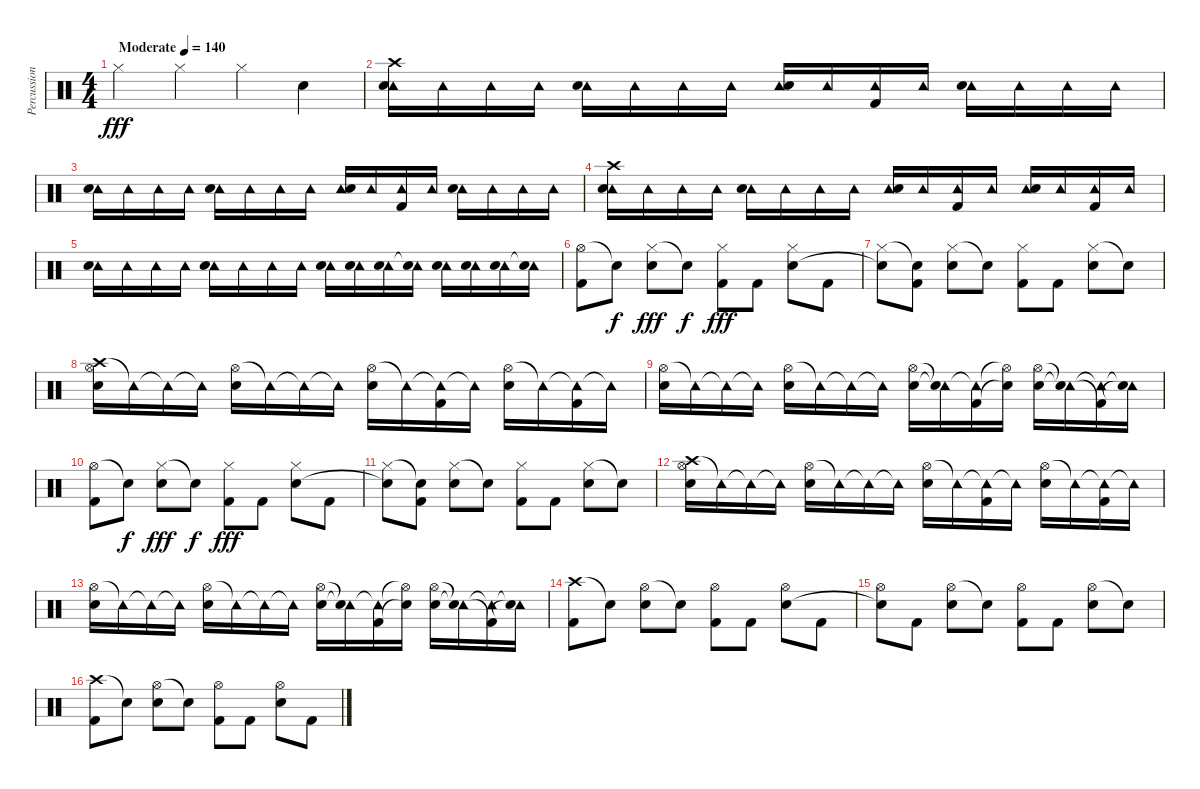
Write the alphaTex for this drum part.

\track ("Percussion" "Percussion") {instrument percussion}
\staff {score}
\articulation defaults
\ts (4 4)
\tempo (140 "Moderate")
\clef neutral
\ks c "Hi-Hat (closed)".4{dy fff} "Hi-Hat (closed)".4 "Hi-Hat (closed)".4 "Electric Snare (hit)".4
|
("Crash high (hit)" "Tambourine (hit)" "Electric Snare (hit)").16 "Tambourine (hit)".16 "Tambourine (hit)".16 "Tambourine (hit)".16 ("Tambourine (hit)" "Electric Snare (hit)").16 "Tambourine (hit)".16 "Tambourine (hit)".16 "Tambourine (hit)".16 ("Tambourine (hit)" "Electric Snare (hit)").16 "Tambourine (hit)".16 ("Tambourine (hit)" "Kick (hit) 2").16 "Tambourine (hit)".16 ("Tambourine (hit)" "Electric Snare (hit)").16 "Tambourine (hit)".16 "Tambourine (hit)".16 "Tambourine (hit)".16 |
("Tambourine (hit)" "Electric Snare (hit)").16 "Tambourine (hit)".16 "Tambourine (hit)".16 "Tambourine (hit)".16 ("Tambourine (hit)" "Electric Snare (hit)").16 "Tambourine (hit)".16 "Tambourine (hit)".16 "Tambourine (hit)".16 ("Tambourine (hit)" "Electric Snare (hit)").16 "Tambourine (hit)".16 ("Tambourine (hit)" "Kick (hit) 2").16 "Tambourine (hit)".16 ("Tambourine (hit)" "Electric Snare (hit)").16 "Tambourine (hit)".16 "Tambourine (hit)".16 "Tambourine (hit)".16 |
("Crash high (hit)" "Tambourine (hit)" "Electric Snare (hit)").16 "Tambourine (hit)".16 "Tambourine (hit)".16 "Tambourine (hit)".16 ("Tambourine (hit)" "Electric Snare (hit)").16 "Tambourine (hit)".16 "Tambourine (hit)".16 "Tambourine (hit)".16 ("Tambourine (hit)" "Electric Snare (hit)").16 "Tambourine (hit)".16 ("Tambourine (hit)" "Kick (hit) 2").16 "Tambourine (hit)".16 ("Tambourine (hit)" "Electric Snare (hit)").16 "Tambourine (hit)".16 ("Tambourine (hit)" "Kick (hit) 2").16 "Tambourine (hit)".16 |
("Tambourine (hit)" "Electric Snare (hit)").16 "Tambourine (hit)".16 "Tambourine (hit)".16 "Tambourine (hit)".16 ("Tambourine (hit)" "Electric Snare (hit)").16 "Tambourine (hit)".16 "Tambourine (hit)".16 "Tambourine (hit)".16 ("Tambourine (hit)" "Electric Snare (hit)").16 ("Tambourine (hit)" "Electric Snare (hit)").16 ("Tambourine (hit)" "Electric Snare (hit)").16 ("Tambourine (hit)" "Snare (hit)"{t}).16 ("Tambourine (hit)" "Electric Snare (hit)").16 ("Tambourine (hit)" "Electric Snare (hit)").16 ("Tambourine (hit)" "Electric Snare (hit)").16 ("Tambourine (hit)" "Snare (hit)"{t}).16 |
("Hi-Hat (open)" "Kick (hit) 2").8 "Snare (hit)"{t}.8{dy f} ("Hi-Hat (closed)" "Electric Snare (hit)").8{dy fff} "Snare (hit)"{t}.8{dy f} ("Hi-Hat (closed)" "Kick (hit) 2").8{dy fff} "Kick (hit) 2".8 ("Hi-Hat (closed)" "Electric Snare (hit)").8 "Kick (hit) 2".8 |
("Hi-Hat (closed)" "Snare (hit)"{t}).8 ("Snare (hit)"{t} "Kick (hit) 2").8 ("Hi-Hat (closed)" "Electric Snare (hit)").8 "Snare (hit)"{t}.8 ("Hi-Hat (closed)" "Kick (hit) 2").8 "Kick (hit) 2".8 ("Hi-Hat (closed)" "Electric Snare (hit)").8 "Snare (hit)"{t}.8 |
("Crash high (hit)" "Hi-Hat (open)" "Electric Snare (hit)").16 "Tambourine (hit)"{t}.16 "Tambourine (hit)"{t}.16 "Tambourine (hit)"{t}.16 ("Hi-Hat (open)" "Electric Snare (hit)").16 "Tambourine (hit)"{t}.16 "Tambourine (hit)"{t}.16 "Tambourine (hit)"{t}.16 ("Hi-Hat (open)" "Electric Snare (hit)").16 "Tambourine (hit)"{t}.16 ("Tambourine (hit)"{t} "Kick (hit) 2").16 "Tambourine (hit)"{t}.16 ("Hi-Hat (open)" "Electric Snare (hit)").16 "Tambourine (hit)"{t}.16 ("Tambourine (hit)"{t} "Kick (hit) 2").16 "Tambourine (hit)"{t}.16 |
("Hi-Hat (open)" "Electric Snare (hit)").16 "Tambourine (hit)"{t}.16 "Tambourine (hit)"{t}.16 "Tambourine (hit)"{t}.16 ("Hi-Hat (open)" "Electric Snare (hit)").16 "Tambourine (hit)"{t}.16 "Tambourine (hit)"{t}.16 "Tambourine (hit)"{t}.16 ("Hi-Hat (open)" "Electric Snare (hit)").16 ("Tambourine (hit)"{t} "Electric Snare (hit)"{t}).16 ("Tambourine (hit)"{t} "Kick (hit) 2").16 ("Hi-Hat (open)"{t} "Snare (hit)"{t}).16 ("Hi-Hat (open)" "Electric Snare (hit)").16 ("Tambourine (hit)"{t} "Electric Snare (hit)"{t}).16 ("Tambourine (hit)"{t} "Kick (hit) 2"{t}).16 ("Tambourine (hit)"{t} "Snare (hit)"{t}).16 |
("Hi-Hat (open)" "Kick (hit) 2").8 "Snare (hit)"{t}.8{dy f} ("Hi-Hat (closed)" "Electric Snare (hit)").8{dy fff} "Snare (hit)"{t}.8{dy f} ("Hi-Hat (closed)" "Kick (hit) 2").8{dy fff} "Kick (hit) 2".8 ("Hi-Hat (closed)" "Electric Snare (hit)").8 "Kick (hit) 2".8 |
("Hi-Hat (closed)" "Snare (hit)"{t}).8 ("Snare (hit)"{t} "Kick (hit) 2").8 ("Hi-Hat (closed)" "Electric Snare (hit)").8 "Snare (hit)"{t}.8 ("Hi-Hat (closed)" "Kick (hit) 2").8 "Kick (hit) 2".8 ("Hi-Hat (closed)" "Electric Snare (hit)").8 "Snare (hit)"{t}.8 |
("Crash high (hit)" "Hi-Hat (open)" "Electric Snare (hit)").16 "Tambourine (hit)"{t}.16 "Tambourine (hit)"{t}.16 "Tambourine (hit)"{t}.16 ("Hi-Hat (open)" "Electric Snare (hit)").16 "Tambourine (hit)"{t}.16 "Tambourine (hit)"{t}.16 "Tambourine (hit)"{t}.16 ("Hi-Hat (open)" "Electric Snare (hit)").16 "Tambourine (hit)"{t}.16 ("Tambourine (hit)"{t} "Kick (hit) 2").16 "Tambourine (hit)"{t}.16 ("Hi-Hat (open)" "Electric Snare (hit)").16 "Tambourine (hit)"{t}.16 ("Tambourine (hit)"{t} "Kick (hit) 2").16 "Tambourine (hit)"{t}.16 |
("Hi-Hat (open)" "Electric Snare (hit)").16 "Tambourine (hit)"{t}.16 "Tambourine (hit)"{t}.16 "Tambourine (hit)"{t}.16 ("Hi-Hat (open)" "Electric Snare (hit)").16 "Tambourine (hit)"{t}.16 "Tambourine (hit)"{t}.16 "Tambourine (hit)"{t}.16 ("Hi-Hat (open)" "Electric Snare (hit)").16 ("Tambourine (hit)"{t} "Electric Snare (hit)"{t}).16 ("Tambourine (hit)"{t} "Kick (hit) 2").16 ("Hi-Hat (open)"{t} "Snare (hit)"{t}).16 ("Hi-Hat (open)" "Electric Snare (hit)").16 ("Tambourine (hit)"{t} "Electric Snare (hit)"{t}).16 ("Tambourine (hit)"{t} "Kick (hit) 2"{t}).16 ("Tambourine (hit)"{t} "Snare (hit)"{t}).16 |
("Crash high (hit)" "Kick (hit) 2").8 "Snare (hit)"{t}.8 ("Hi-Hat (open)" "Electric Snare (hit)").8 "Snare (hit)"{t}.8 ("Hi-Hat (open)" "Kick (hit) 2").8 "Kick (hit) 2".8 ("Hi-Hat (open)" "Electric Snare (hit)").8 "Kick (hit) 2".8 |
("Hi-Hat (open)" "Snare (hit)"{t}).8 "Kick (hit) 2".8 ("Hi-Hat (open)" "Electric Snare (hit)").8 "Snare (hit)"{t}.8 ("Hi-Hat (open)" "Kick (hit) 2").8 "Kick (hit) 2".8 ("Hi-Hat (open)" "Electric Snare (hit)").8 "Snare (hit)"{t}.8 |
("Crash high (hit)" "Kick (hit) 2").8 "Snare (hit)"{t}.8 ("Hi-Hat (open)" "Electric Snare (hit)").8 "Snare (hit)"{t}.8 ("Hi-Hat (open)" "Kick (hit) 2").8 "Kick (hit) 2".8 ("Hi-Hat (open)" "Electric Snare (hit)").8 "Kick (hit) 2".8
